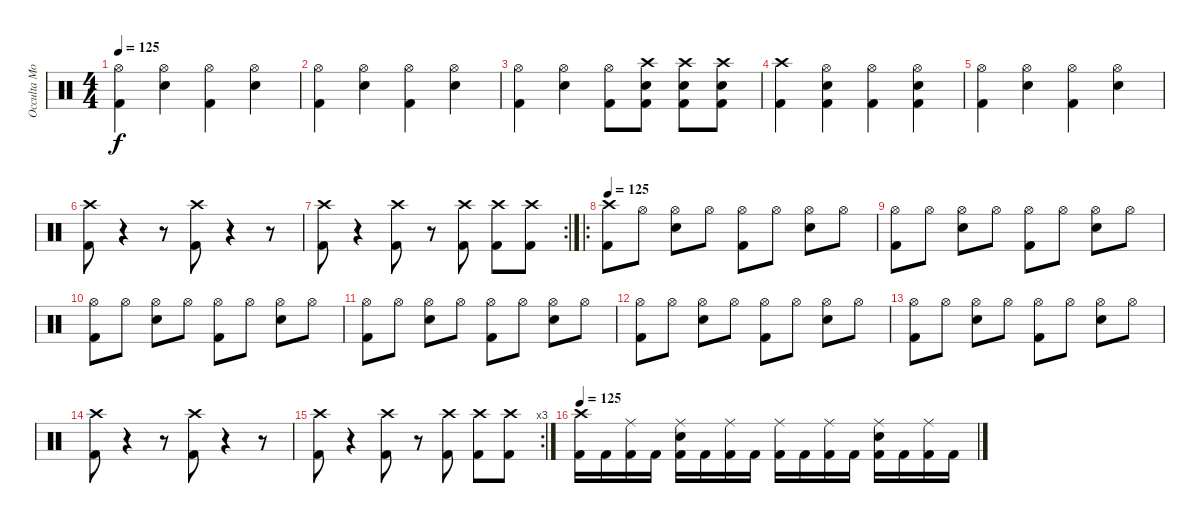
\track ("Occulta Mors" "Occulta Mo") {instrument percussion}
\staff {score}
\articulation defaults
\ts (4 4)
\tempo 125
\clef neutral
\ks c
("Hi-Hat (open)" "Kick (hit) 2").4{dy f} ("Hi-Hat (open)" "Snare (hit) 2").4 ("Hi-Hat (open)" "Kick (hit) 2").4 ("Hi-Hat (open)" "Snare (hit) 2").4 |
("Hi-Hat (open)" "Kick (hit) 2").4 ("Hi-Hat (open)" "Snare (hit) 2").4 ("Hi-Hat (open)" "Kick (hit) 2").4 ("Hi-Hat (open)" "Snare (hit) 2").4 |
("Hi-Hat (open)" "Kick (hit) 2").4 ("Hi-Hat (open)" "Snare (hit) 2").4 ("Hi-Hat (open)" "Kick (hit) 2").8 ("Crash high (hit)" "Snare (hit) 2" "Kick (hit) 2").8 ("Crash high (hit)" "Snare (hit) 2" "Kick (hit) 2").8 ("Crash high (hit)" "Snare (hit) 2" "Kick (hit) 2").8 |
("Crash high (hit)" "Kick (hit) 2").4 ("Hi-Hat (open)" "Snare (hit) 2" "Kick (hit) 2").4 ("Hi-Hat (open)" "Kick (hit) 2").4 ("Hi-Hat (open)" "Snare (hit) 2" "Kick (hit) 2").4 |
("Hi-Hat (open)" "Kick (hit) 2").4 ("Hi-Hat (open)" "Snare (hit) 2").4 ("Hi-Hat (open)" "Kick (hit) 2").4 ("Hi-Hat (open)" "Snare (hit) 2").4 |
("Crash high (hit)" "Kick (hit) 2").8 r.4 r.8 ("Crash high (hit)" "Kick (hit) 2").8 r.4 r.8 |
\rc 2
("Crash high (hit)" "Kick (hit) 2").8 r.4 ("Crash high (hit)" "Kick (hit) 2").8 r.8 ("Crash high (hit)" "Kick (hit) 2").8 ("Crash high (hit)" "Kick (hit) 2").8 ("Crash high (hit)" "Kick (hit) 2").8 |
\ro
\tempo 125
("Crash high (hit)" "Kick (hit) 2").8 "Hi-Hat (open)".8 ("Hi-Hat (open)" "Snare (hit) 2").8 "Hi-Hat (open)".8 ("Hi-Hat (open)" "Kick (hit) 2").8 "Hi-Hat (open)".8 ("Hi-Hat (open)" "Snare (hit) 2").8 "Hi-Hat (open)".8 |
("Hi-Hat (open)" "Kick (hit) 2").8 "Hi-Hat (open)".8 ("Hi-Hat (open)" "Snare (hit) 2").8 "Hi-Hat (open)".8 ("Hi-Hat (open)" "Kick (hit) 2").8 "Hi-Hat (open)".8 ("Hi-Hat (open)" "Snare (hit) 2").8 "Hi-Hat (open)".8 |
("Hi-Hat (open)" "Kick (hit) 2").8 "Hi-Hat (open)".8 ("Hi-Hat (open)" "Snare (hit) 2").8 "Hi-Hat (open)".8 ("Hi-Hat (open)" "Kick (hit) 2").8 "Hi-Hat (open)".8 ("Hi-Hat (open)" "Snare (hit) 2").8 "Hi-Hat (open)".8 |
("Hi-Hat (open)" "Kick (hit) 2").8 "Hi-Hat (open)".8 ("Hi-Hat (open)" "Snare (hit) 2").8 "Hi-Hat (open)".8 ("Hi-Hat (open)" "Kick (hit) 2").8 "Hi-Hat (open)".8 ("Hi-Hat (open)" "Snare (hit) 2").8 "Hi-Hat (open)".8 |
("Hi-Hat (open)" "Kick (hit) 2").8 "Hi-Hat (open)".8 ("Hi-Hat (open)" "Snare (hit) 2").8 "Hi-Hat (open)".8 ("Hi-Hat (open)" "Kick (hit) 2").8 "Hi-Hat (open)".8 ("Hi-Hat (open)" "Snare (hit) 2").8 "Hi-Hat (open)".8 |
("Hi-Hat (open)" "Kick (hit) 2").8 "Hi-Hat (open)".8 ("Hi-Hat (open)" "Snare (hit) 2").8 "Hi-Hat (open)".8 ("Hi-Hat (open)" "Kick (hit) 2").8 "Hi-Hat (open)".8 ("Hi-Hat (open)" "Snare (hit) 2").8 "Hi-Hat (open)".8 |
("Crash high (hit)" "Kick (hit) 2").8 r.4 r.8 ("Crash high (hit)" "Kick (hit) 2").8 r.4 r.8 |
\rc 3
("Crash high (hit)" "Kick (hit) 2").8 r.4 ("Crash high (hit)" "Kick (hit) 2").8 r.8 ("Crash high (hit)" "Kick (hit) 2").8 ("Crash high (hit)" "Kick (hit) 2").8 ("Crash high (hit)" "Kick (hit) 2").8 |
\tempo 125
("Crash high (hit)" "Kick (hit) 2").16 "Kick (hit) 2".16 ("Ride (middle)" "Kick (hit) 2").16 "Kick (hit) 2".16 ("Ride (middle)" "Snare (hit) 2" "Kick (hit) 2").16 "Kick (hit) 2".16 ("Ride (middle)" "Kick (hit) 2").16 "Kick (hit) 2".16 ("Ride (middle)" "Kick (hit) 2").16 "Kick (hit) 2".16 ("Ride (middle)" "Kick (hit) 2").16 "Kick (hit) 2".16 ("Ride (middle)" "Snare (hit) 2" "Kick (hit) 2").16 "Kick (hit) 2".16 ("Ride (middle)" "Kick (hit) 2").16 "Kick (hit) 2".16
